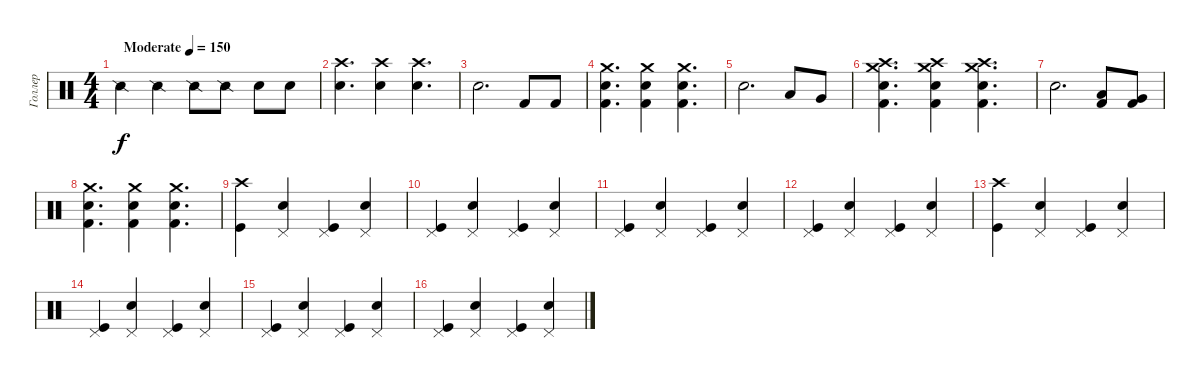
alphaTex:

\track ("Голлер" "Голлер") {instrument percussion}
\staff {score}
\articulation defaults
\ts (4 4)
\tempo (150 "Moderate")
\clef neutral
\ks c "Snare (side stick) 2".4{dy f} "Snare (side stick) 2".4 "Snare (side stick) 2".8 "Snare (side stick) 2".8 "Snare (hit) 2".8 "Snare (hit) 2".8
|
("Snare (hit) 2" "Crash high (hit)").4{d} ("Snare (hit) 2" "Crash high (hit)").4 ("Snare (hit) 2" "Crash high (hit)").4{d} |
"Hand Clap (hit)".2{d} "Kick (hit) 2".8 "Kick (hit) 2".8 |
("Kick (hit) 2" "Snare (hit) 2" "Crash medium (hit)").4{d} ("Kick (hit) 2" "Snare (hit) 2" "Crash medium (hit)").4 ("Kick (hit) 2" "Snare (hit) 2" "Crash medium (hit)").4{d} |
"Hand Clap (hit)".2{d} "Low Floor Tom (hit)".8 "Very Low Tom (hit)".8 |
("Kick (hit) 2" "Snare (hit) 2" "Crash medium (hit)" "Crash high (hit)").4{d} ("Kick (hit) 2" "Snare (hit) 2" "Crash medium (hit)" "Crash high (hit)").4 ("Kick (hit) 2" "Snare (hit) 2" "Crash medium (hit)" "Crash high (hit)").4{d} |
"Hand Clap (hit)".2{d} ("Low Floor Tom (hit)" "Kick (hit) 2").8 ("Very Low Tom (hit)" "Kick (hit) 2").8 |
("Kick (hit) 2" "Snare (hit) 2" "Crash medium (hit)").4{d} ("Kick (hit) 2" "Snare (hit) 2" "Crash medium (hit)").4 ("Kick (hit) 2" "Snare (hit) 2" "Crash medium (hit)").4{d} |
("Crash high (hit)" "Kick (hit)").4 ("Pedal Hi-Hat (hit)" "Snare (hit) 2").4 ("Pedal Hi-Hat (hit)" "Kick (hit)").4 ("Pedal Hi-Hat (hit)" "Snare (hit) 2").4 |
("Pedal Hi-Hat (hit)" "Kick (hit)").4 ("Pedal Hi-Hat (hit)" "Snare (hit) 2").4 ("Pedal Hi-Hat (hit)" "Kick (hit)").4 ("Pedal Hi-Hat (hit)" "Snare (hit) 2").4 |
("Pedal Hi-Hat (hit)" "Kick (hit)").4 ("Pedal Hi-Hat (hit)" "Snare (hit) 2").4 ("Pedal Hi-Hat (hit)" "Kick (hit)").4 ("Pedal Hi-Hat (hit)" "Snare (hit) 2").4 |
("Pedal Hi-Hat (hit)" "Kick (hit)").4 ("Pedal Hi-Hat (hit)" "Snare (hit) 2").4 ("Pedal Hi-Hat (hit)" "Kick (hit)").4 ("Pedal Hi-Hat (hit)" "Snare (hit) 2").4 |
("Crash high (hit)" "Kick (hit)").4 ("Pedal Hi-Hat (hit)" "Snare (hit) 2").4 ("Pedal Hi-Hat (hit)" "Kick (hit)").4 ("Pedal Hi-Hat (hit)" "Snare (hit) 2").4 |
("Pedal Hi-Hat (hit)" "Kick (hit)").4 ("Pedal Hi-Hat (hit)" "Snare (hit) 2").4 ("Pedal Hi-Hat (hit)" "Kick (hit)").4 ("Pedal Hi-Hat (hit)" "Snare (hit) 2").4 |
("Pedal Hi-Hat (hit)" "Kick (hit)").4 ("Pedal Hi-Hat (hit)" "Snare (hit) 2").4 ("Pedal Hi-Hat (hit)" "Kick (hit)").4 ("Pedal Hi-Hat (hit)" "Snare (hit) 2").4 |
("Pedal Hi-Hat (hit)" "Kick (hit)").4 ("Pedal Hi-Hat (hit)" "Snare (hit) 2").4 ("Pedal Hi-Hat (hit)" "Kick (hit)").4 ("Pedal Hi-Hat (hit)" "Snare (hit) 2").4
